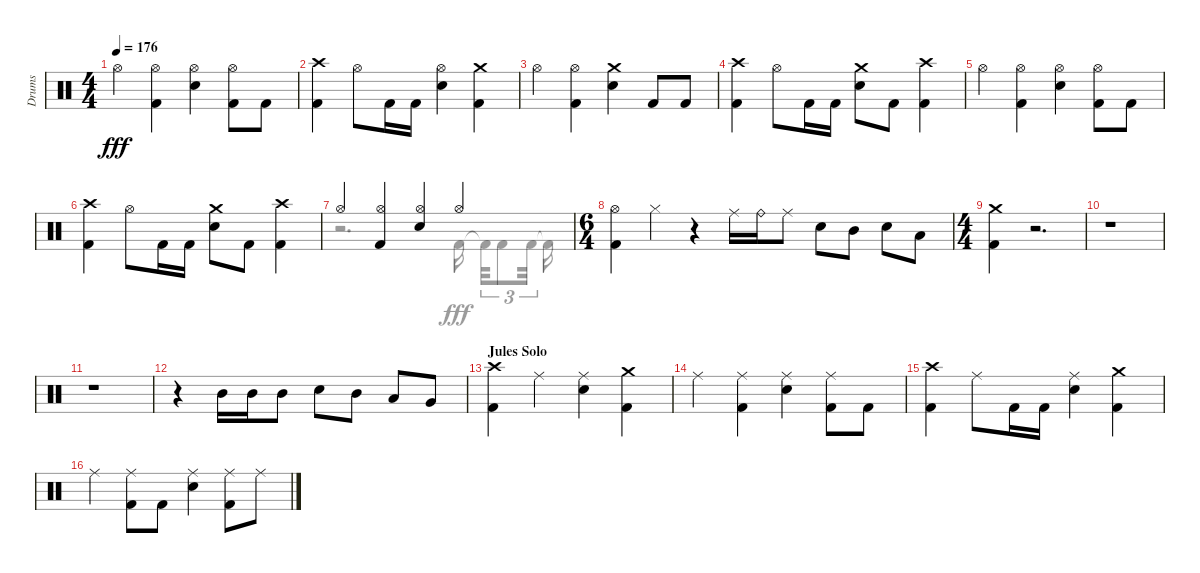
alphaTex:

\track ("Drums" "Drums") {instrument percussion}
\staff {score}
\articulation defaults
\voice
\ts (4 4)
\tempo 176
\clef neutral
\ks aminor "Hi-Hat (open)".4{dy fff}
("Kick (hit) 2" "Hi-Hat (open)").4 ("Hi-Hat (open)" "Snare (hit) 2").4 ("Hi-Hat (open)" "Kick (hit) 2").8 "Kick (hit) 2".8 |
("Kick (hit) 2" "Crash high (hit)").4 "Hi-Hat (open)".8 "Kick (hit) 2".16 "Kick (hit) 2".16 ("Snare (hit) 2" "Hi-Hat (open)").4 ("Kick (hit) 2" "Crash medium (hit)").4 |
"Hi-Hat (open)".4 ("Hi-Hat (open)" "Kick (hit) 2").4 ("Crash medium (hit)" "Snare (hit) 2").4 "Kick (hit) 2".8 "Kick (hit) 2".8 |
("Crash high (hit)" "Kick (hit) 2").4 "Hi-Hat (open)".8 "Kick (hit) 2".16 "Kick (hit) 2".16 ("Crash medium (hit)" "Snare (hit) 2").8 "Kick (hit) 2".8 ("Kick (hit) 2" "Crash high (hit)").4 |
"Hi-Hat (open)".4 ("Kick (hit) 2" "Hi-Hat (open)").4 ("Snare (hit) 2" "Hi-Hat (open)").4 ("Hi-Hat (open)" "Kick (hit) 2").8 "Kick (hit) 2".8 |
("Kick (hit) 2" "Crash high (hit)").4 "Hi-Hat (open)".8 "Kick (hit) 2".16 "Kick (hit) 2".16 ("Snare (hit) 2" "Crash medium (hit)").8 "Kick (hit) 2".8 ("Kick (hit) 2" "Crash high (hit)").4 |
"Hi-Hat (open)".4 ("Kick (hit) 2" "Hi-Hat (open)").4 ("Hi-Hat (open)" "Snare (hit) 2").4 "Hi-Hat (open)".4 |
\ts (6 4)
("Kick (hit) 2" "Hi-Hat (open)").4 "Hi-Hat (closed)".4 r.4 "Ride (middle)".16 "Ride (bell)".16 "Ride (middle)".8 "Snare (hit) 2".8 "Mid Tom (hit)".8 "Snare (hit) 2".8 "Low Tom (hit)".8 |
\ts (4 4)
("Kick (hit) 2" "Crash medium (hit)").4 r.2{d} |
r.1 |
r.1 |
r.4 "Mid Tom (hit)".16 "Mid Tom (hit)".16 "Mid Tom (hit)".8 "Snare (hit) 2".8 "Mid Tom (hit)".8 "Low Tom (hit)".8 "Very Low Tom (hit)".8 |
\section ("" "Jules Solo")
("Crash high (hit)" "Kick (hit) 2").4 "Ride (middle)".4 ("Snare (hit) 2" "Ride (middle)").4 ("Kick (hit) 2" "Crash medium (hit)").4 |
"Ride (middle)".4 ("Ride (middle)" "Kick (hit) 2").4 ("Ride (middle)" "Snare (hit) 2").4 ("Kick (hit) 2" "Ride (middle)").8 "Kick (hit) 2".8 |
("Kick (hit) 2" "Crash high (hit)").4 "Ride (middle)".8 "Kick (hit) 2".16 "Kick (hit) 2".16 ("Ride (middle)" "Snare (hit) 2").4 ("Crash medium (hit)" "Kick (hit) 2").4 |
"Ride (middle)".4 ("Kick (hit) 2" "Ride (middle)").8 "Kick (hit) 2".8 ("Snare (hit) 2" "Ride (middle)").4 ("Kick (hit) 2" "Ride (middle)").8 "Ride (middle)".8
\voice
\clef neutral
\ottava regular
\simile none
\ks aminor
|
|
|
|
|
|
r.2{d} "Kick (hit) 2".16 "Kick (hit) 2"{t}.32{tu (3 2)} "Kick (hit) 2".8{tu (3 2)} "Kick (hit) 2".32{tu (3 2)} "Kick (hit) 2"{t}.16 |
|
|
|
|
|
|
|
|
